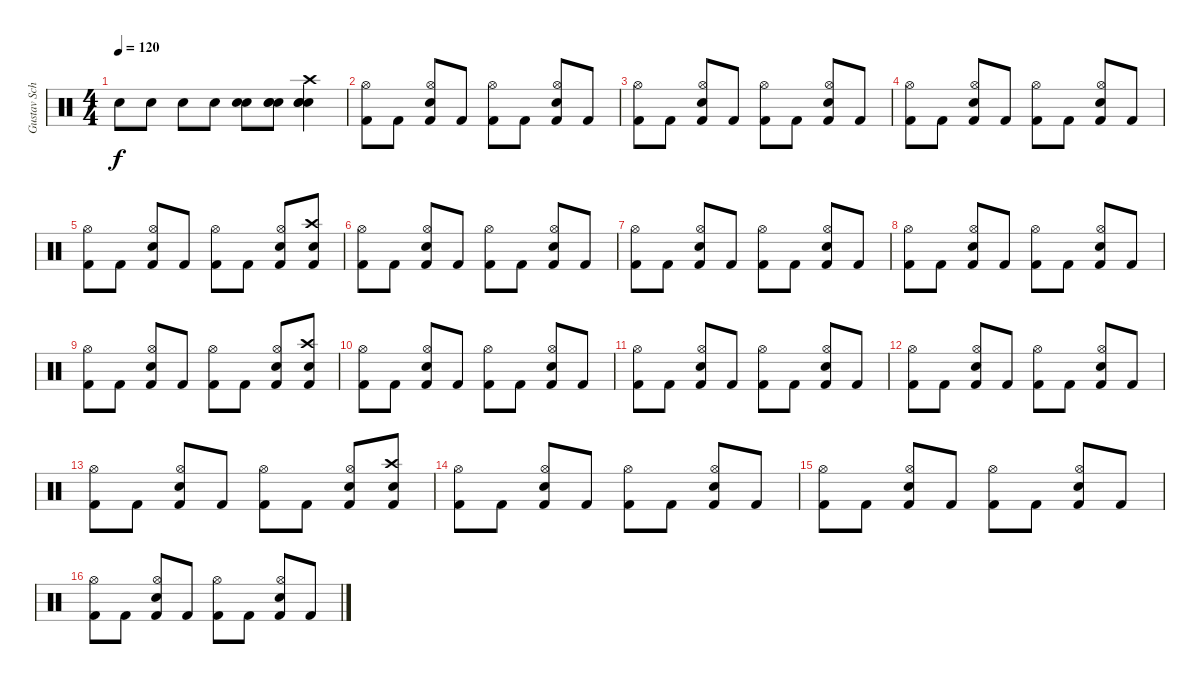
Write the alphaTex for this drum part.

\track ("Gustav Schäfer" "Gustav Sch") {instrument percussion}
\staff {score}
\articulation defaults
\ts (4 4)
\tempo 120
\clef neutral
\ks c "Electric Snare (hit)".8{dy f} "Electric Snare (hit)".8 "Electric Snare (hit)".8 "Electric Snare (hit)".8
("Electric Snare (hit)" "Electric Snare (hit)").8 ("Electric Snare (hit)" "Electric Snare (hit)" "Electric Snare (hit)").8 ("Crash high (hit)" "Electric Snare (hit)" "Electric Snare (hit)" "Electric Snare (hit)").4 |
("Hi-Hat (open)" "Kick (hit) 2").8 "Kick (hit) 2".8 ("Hi-Hat (open)" "Electric Snare (hit)" "Kick (hit) 2").8 "Kick (hit) 2".8 ("Hi-Hat (open)" "Kick (hit) 2").8 "Kick (hit) 2".8 ("Hi-Hat (open)" "Electric Snare (hit)" "Kick (hit) 2").8 "Kick (hit) 2".8 |
("Hi-Hat (open)" "Kick (hit) 2").8 "Kick (hit) 2".8 ("Hi-Hat (open)" "Electric Snare (hit)" "Kick (hit) 2").8 "Kick (hit) 2".8 ("Hi-Hat (open)" "Kick (hit) 2").8 "Kick (hit) 2".8 ("Hi-Hat (open)" "Electric Snare (hit)" "Kick (hit) 2").8 "Kick (hit) 2".8 |
("Hi-Hat (open)" "Kick (hit) 2").8 "Kick (hit) 2".8 ("Hi-Hat (open)" "Electric Snare (hit)" "Kick (hit) 2").8 "Kick (hit) 2".8 ("Hi-Hat (open)" "Kick (hit) 2").8 "Kick (hit) 2".8 ("Hi-Hat (open)" "Electric Snare (hit)" "Kick (hit) 2").8 "Kick (hit) 2".8 |
("Hi-Hat (open)" "Kick (hit) 2").8 "Kick (hit) 2".8 ("Hi-Hat (open)" "Electric Snare (hit)" "Kick (hit) 2").8 "Kick (hit) 2".8 ("Hi-Hat (open)" "Kick (hit) 2").8 "Kick (hit) 2".8 ("Hi-Hat (open)" "Electric Snare (hit)" "Kick (hit) 2").8 ("Crash high (hit)" "Electric Snare (hit)" "Kick (hit) 2").8 |
("Hi-Hat (open)" "Kick (hit) 2").8 "Kick (hit) 2".8 ("Hi-Hat (open)" "Electric Snare (hit)" "Kick (hit) 2").8 "Kick (hit) 2".8 ("Hi-Hat (open)" "Kick (hit) 2").8 "Kick (hit) 2".8 ("Hi-Hat (open)" "Electric Snare (hit)" "Kick (hit) 2").8 "Kick (hit) 2".8 |
("Hi-Hat (open)" "Kick (hit) 2").8 "Kick (hit) 2".8 ("Hi-Hat (open)" "Electric Snare (hit)" "Kick (hit) 2").8 "Kick (hit) 2".8 ("Hi-Hat (open)" "Kick (hit) 2").8 "Kick (hit) 2".8 ("Hi-Hat (open)" "Electric Snare (hit)" "Kick (hit) 2").8 "Kick (hit) 2".8 |
("Hi-Hat (open)" "Kick (hit) 2").8 "Kick (hit) 2".8 ("Hi-Hat (open)" "Electric Snare (hit)" "Kick (hit) 2").8 "Kick (hit) 2".8 ("Hi-Hat (open)" "Kick (hit) 2").8 "Kick (hit) 2".8 ("Hi-Hat (open)" "Electric Snare (hit)" "Kick (hit) 2").8 "Kick (hit) 2".8 |
("Hi-Hat (open)" "Kick (hit) 2").8 "Kick (hit) 2".8 ("Hi-Hat (open)" "Electric Snare (hit)" "Kick (hit) 2").8 "Kick (hit) 2".8 ("Hi-Hat (open)" "Kick (hit) 2").8 "Kick (hit) 2".8 ("Hi-Hat (open)" "Electric Snare (hit)" "Kick (hit) 2").8 ("Crash high (hit)" "Electric Snare (hit)" "Kick (hit) 2").8 |
("Hi-Hat (open)" "Kick (hit) 2").8 "Kick (hit) 2".8 ("Hi-Hat (open)" "Electric Snare (hit)" "Kick (hit) 2").8 "Kick (hit) 2".8 ("Hi-Hat (open)" "Kick (hit) 2").8 "Kick (hit) 2".8 ("Hi-Hat (open)" "Electric Snare (hit)" "Kick (hit) 2").8 "Kick (hit) 2".8 |
("Hi-Hat (open)" "Kick (hit) 2").8 "Kick (hit) 2".8 ("Hi-Hat (open)" "Electric Snare (hit)" "Kick (hit) 2").8 "Kick (hit) 2".8 ("Hi-Hat (open)" "Kick (hit) 2").8 "Kick (hit) 2".8 ("Hi-Hat (open)" "Electric Snare (hit)" "Kick (hit) 2").8 "Kick (hit) 2".8 |
("Hi-Hat (open)" "Kick (hit) 2").8 "Kick (hit) 2".8 ("Hi-Hat (open)" "Electric Snare (hit)" "Kick (hit) 2").8 "Kick (hit) 2".8 ("Hi-Hat (open)" "Kick (hit) 2").8 "Kick (hit) 2".8 ("Hi-Hat (open)" "Electric Snare (hit)" "Kick (hit) 2").8 "Kick (hit) 2".8 |
("Hi-Hat (open)" "Kick (hit) 2").8 "Kick (hit) 2".8 ("Hi-Hat (open)" "Electric Snare (hit)" "Kick (hit) 2").8 "Kick (hit) 2".8 ("Hi-Hat (open)" "Kick (hit) 2").8 "Kick (hit) 2".8 ("Hi-Hat (open)" "Electric Snare (hit)" "Kick (hit) 2").8 ("Crash high (hit)" "Electric Snare (hit)" "Kick (hit) 2").8 |
("Hi-Hat (open)" "Kick (hit) 2").8 "Kick (hit) 2".8 ("Hi-Hat (open)" "Electric Snare (hit)" "Kick (hit) 2").8 "Kick (hit) 2".8 ("Hi-Hat (open)" "Kick (hit) 2").8 "Kick (hit) 2".8 ("Hi-Hat (open)" "Electric Snare (hit)" "Kick (hit) 2").8 "Kick (hit) 2".8 |
("Hi-Hat (open)" "Kick (hit) 2").8 "Kick (hit) 2".8 ("Hi-Hat (open)" "Electric Snare (hit)" "Kick (hit) 2").8 "Kick (hit) 2".8 ("Hi-Hat (open)" "Kick (hit) 2").8 "Kick (hit) 2".8 ("Hi-Hat (open)" "Electric Snare (hit)" "Kick (hit) 2").8 "Kick (hit) 2".8 |
("Hi-Hat (open)" "Kick (hit) 2").8 "Kick (hit) 2".8 ("Hi-Hat (open)" "Electric Snare (hit)" "Kick (hit) 2").8 "Kick (hit) 2".8 ("Hi-Hat (open)" "Kick (hit) 2").8 "Kick (hit) 2".8 ("Hi-Hat (open)" "Electric Snare (hit)" "Kick (hit) 2").8 "Kick (hit) 2".8
